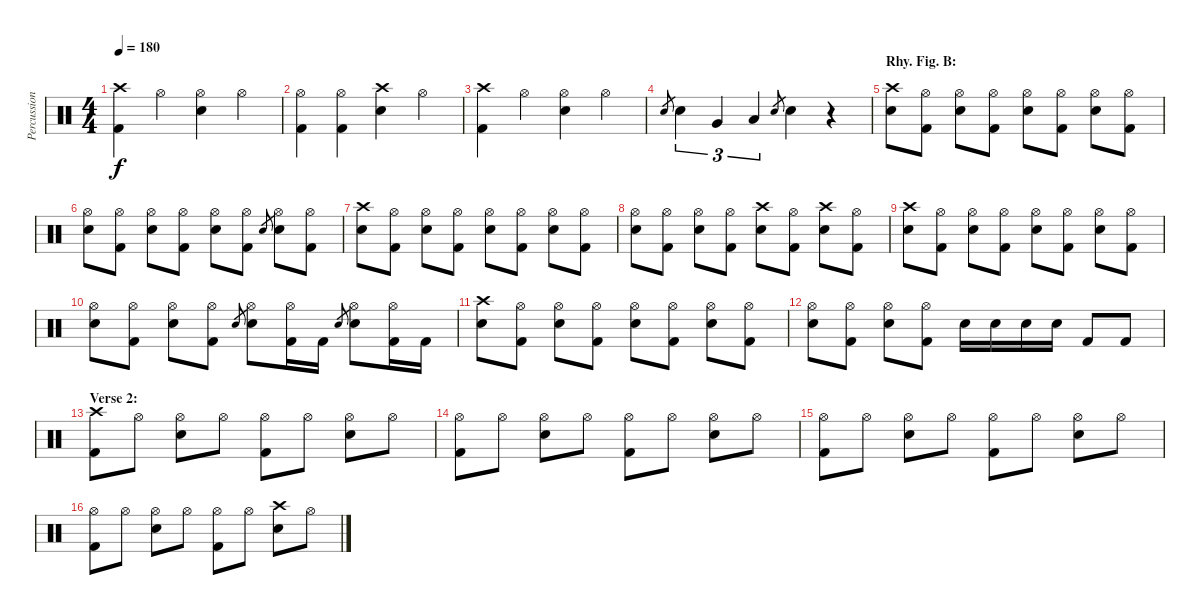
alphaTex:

\track ("Percussion" "Percussion") {instrument percussion}
\staff {score}
\articulation defaults
\ts (4 4)
\tempo 180
\clef neutral
\ks c
("Crash high (hit)" "Kick (hit) 2").4{dy f} "Hi-Hat (open)".4 ("Hi-Hat (open)" "Snare (hit) 2").4 "Hi-Hat (open)".4 |
("Hi-Hat (open)" "Kick (hit) 2").4 ("Hi-Hat (open)" "Kick (hit) 2").4 ("Crash high (hit)" "Snare (hit) 2").4 "Hi-Hat (open)".4 |
("Crash high (hit)" "Kick (hit) 2").4 "Hi-Hat (open)".4 ("Hi-Hat (open)" "Snare (hit) 2").4 "Hi-Hat (open)".4 |
"Snare (hit) 2".8{gr} "Snare (hit) 2".4{tu (3 2)} "Very Low Tom (hit)".4{tu (3 2)} "Low Floor Tom (hit)".4{tu (3 2)} "Snare (hit) 2".8{gr} "Snare (hit) 2".4 r.4 |
\section ("" "Rhy. Fig. B:")
("Crash high (hit)" "Snare (hit) 2").8 ("Hi-Hat (open)" "Kick (hit) 2").8 ("Hi-Hat (open)" "Snare (hit) 2").8 ("Hi-Hat (open)" "Kick (hit) 2").8 ("Hi-Hat (open)" "Snare (hit) 2").8 ("Hi-Hat (open)" "Kick (hit) 2").8 ("Hi-Hat (open)" "Snare (hit) 2").8 ("Hi-Hat (open)" "Kick (hit) 2").8 |
("Hi-Hat (open)" "Snare (hit) 2").8 ("Hi-Hat (open)" "Kick (hit) 2").8 ("Hi-Hat (open)" "Snare (hit) 2").8 ("Hi-Hat (open)" "Kick (hit) 2").8 ("Hi-Hat (open)" "Snare (hit) 2").8 ("Hi-Hat (open)" "Kick (hit) 2").8 "Snare (hit) 2".8{gr} ("Hi-Hat (open)" "Snare (hit) 2").8 ("Hi-Hat (open)" "Kick (hit) 2").8 |
("Crash high (hit)" "Snare (hit) 2").8 ("Hi-Hat (open)" "Kick (hit) 2").8 ("Hi-Hat (open)" "Snare (hit) 2").8 ("Hi-Hat (open)" "Kick (hit) 2").8 ("Hi-Hat (open)" "Snare (hit) 2").8 ("Hi-Hat (open)" "Kick (hit) 2").8 ("Hi-Hat (open)" "Snare (hit) 2").8 ("Hi-Hat (open)" "Kick (hit) 2").8 |
("Hi-Hat (open)" "Snare (hit) 2").8 ("Hi-Hat (open)" "Kick (hit) 2").8 ("Hi-Hat (open)" "Snare (hit) 2").8 ("Hi-Hat (open)" "Kick (hit) 2").8 ("Crash high (hit)" "Snare (hit) 2").8 ("Hi-Hat (open)" "Kick (hit) 2").8 ("Crash high (hit)" "Snare (hit) 2").8 ("Hi-Hat (open)" "Kick (hit) 2").8 |
("Crash high (hit)" "Snare (hit) 2").8 ("Hi-Hat (open)" "Kick (hit) 2").8 ("Hi-Hat (open)" "Snare (hit) 2").8 ("Hi-Hat (open)" "Kick (hit) 2").8 ("Hi-Hat (open)" "Snare (hit) 2").8 ("Hi-Hat (open)" "Kick (hit) 2").8 ("Hi-Hat (open)" "Snare (hit) 2").8 ("Hi-Hat (open)" "Kick (hit) 2").8 |
("Hi-Hat (open)" "Snare (hit) 2").8 ("Hi-Hat (open)" "Kick (hit) 2").8 ("Hi-Hat (open)" "Snare (hit) 2").8 ("Hi-Hat (open)" "Kick (hit) 2").8 "Snare (hit) 2".8{gr} ("Hi-Hat (open)" "Snare (hit) 2").8 ("Hi-Hat (open)" "Kick (hit) 2").16 "Kick (hit) 2".16 "Snare (hit) 2".8{gr} ("Hi-Hat (open)" "Snare (hit) 2").8 ("Hi-Hat (open)" "Kick (hit) 2").16 "Kick (hit) 2".16 |
("Crash high (hit)" "Snare (hit) 2").8 ("Hi-Hat (open)" "Kick (hit) 2").8 ("Hi-Hat (open)" "Snare (hit) 2").8 ("Hi-Hat (open)" "Kick (hit) 2").8 ("Hi-Hat (open)" "Snare (hit) 2").8 ("Hi-Hat (open)" "Kick (hit) 2").8 ("Hi-Hat (open)" "Snare (hit) 2").8 ("Hi-Hat (open)" "Kick (hit) 2").8 |
("Hi-Hat (open)" "Snare (hit) 2").8 ("Hi-Hat (open)" "Kick (hit) 2").8 ("Hi-Hat (open)" "Snare (hit) 2").8 ("Hi-Hat (open)" "Kick (hit) 2").8 "Snare (hit) 2".16 "Snare (hit) 2".16 "Snare (hit) 2".16 "Snare (hit) 2".16 "Kick (hit) 2".8 "Kick (hit) 2".8 |
\section ("" "Verse 2:")
("Crash high (hit)" "Kick (hit) 2").8 "Hi-Hat (open)".8 ("Hi-Hat (open)" "Snare (hit) 2").8 "Hi-Hat (open)".8 ("Hi-Hat (open)" "Kick (hit) 2").8 "Hi-Hat (open)".8 ("Hi-Hat (open)" "Snare (hit) 2").8 "Hi-Hat (open)".8 |
("Hi-Hat (open)" "Kick (hit) 2").8 "Hi-Hat (open)".8 ("Hi-Hat (open)" "Snare (hit) 2").8 "Hi-Hat (open)".8 ("Hi-Hat (open)" "Kick (hit) 2").8 "Hi-Hat (open)".8 ("Hi-Hat (open)" "Snare (hit) 2").8 "Hi-Hat (open)".8 |
("Hi-Hat (open)" "Kick (hit) 2").8 "Hi-Hat (open)".8 ("Hi-Hat (open)" "Snare (hit) 2").8 "Hi-Hat (open)".8 ("Hi-Hat (open)" "Kick (hit) 2").8 "Hi-Hat (open)".8 ("Hi-Hat (open)" "Snare (hit) 2").8 "Hi-Hat (open)".8 |
("Hi-Hat (open)" "Kick (hit) 2").8 "Hi-Hat (open)".8 ("Hi-Hat (open)" "Snare (hit) 2").8 "Hi-Hat (open)".8 ("Hi-Hat (open)" "Kick (hit) 2").8 "Hi-Hat (open)".8 ("Crash high (hit)" "Snare (hit) 2").8 "Hi-Hat (open)".8
